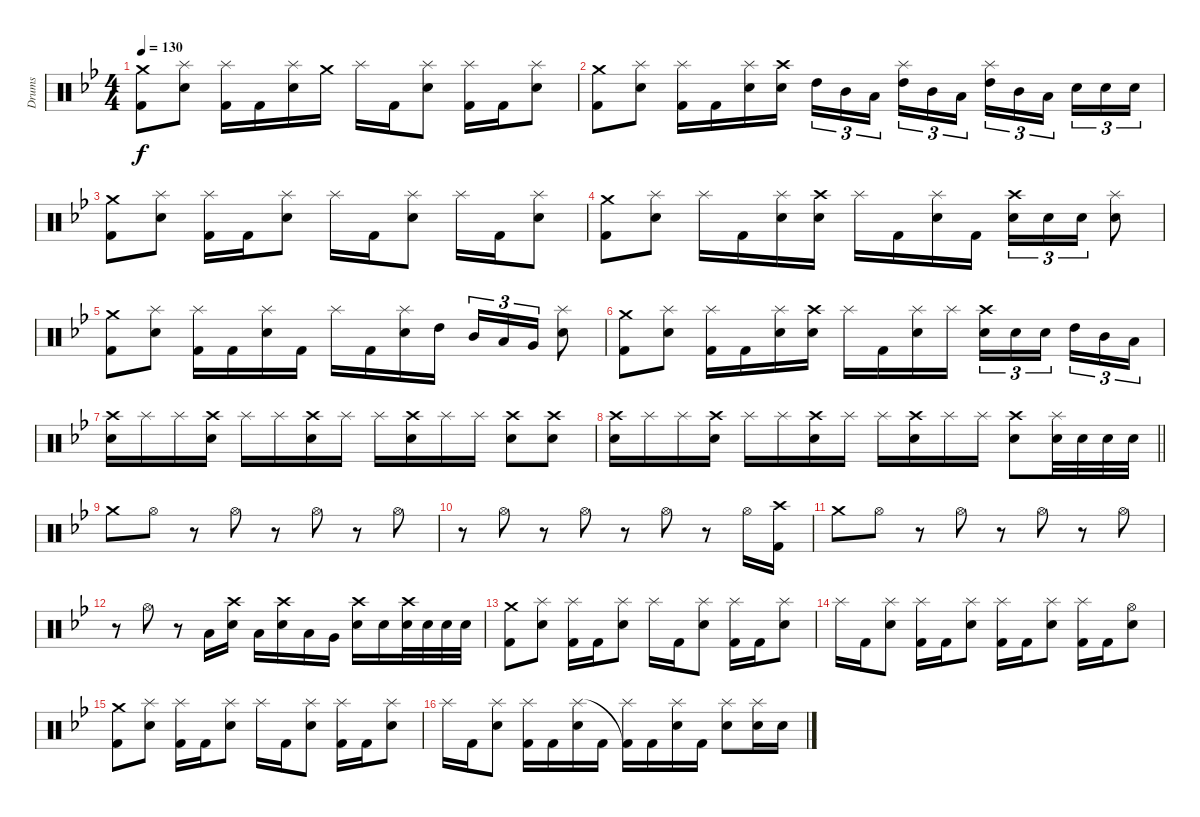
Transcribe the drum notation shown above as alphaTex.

\track ("Drums" "Drums") {instrument percussion}
\staff {score}
\articulation defaults
\ts (4 4)
\tempo 130
\clef neutral
\ks bb
("Crash medium (hit)" "Kick (hit) 2").8{dy f} ("Electric Snare (hit)" "Splash (hit)").8 ("Splash (hit)" "Kick (hit) 2").16 "Kick (hit) 2".16 ("Electric Snare (hit)" "Splash (hit)").16 "Crash medium (hit)".16 "Splash (hit)".16 "Kick (hit) 2".16 ("Electric Snare (hit)" "Splash (hit)").8 ("Splash (hit)" "Kick (hit) 2").16 "Kick (hit) 2".16 ("Electric Snare (hit)" "Splash (hit)").8 |
("Crash medium (hit)" "Kick (hit) 2").8 ("Electric Snare (hit)" "Splash (hit)").8 ("Splash (hit)" "Kick (hit) 2").16 "Kick (hit) 2".16 ("Electric Snare (hit)" "Splash (hit)").16 ("Electric Snare (hit)" "Crash high (hit)").16 "High Tom (hit)".16{tu (3 2)} "Mid Tom (hit)".16{tu (3 2)} "Low Tom (hit)".16{tu (3 2) beam splitsecondary} ("High Tom (hit)" "Splash (hit)").16{tu (3 2)} "Mid Tom (hit)".16{tu (3 2)} "Low Tom (hit)".16{tu (3 2)} ("High Tom (hit)" "Splash (hit)").16{tu (3 2)} "Mid Tom (hit)".16{tu (3 2)} "Low Tom (hit)".16{tu (3 2) beam splitsecondary} "Electric Snare (hit)".16{tu (3 2) volume 11} "Electric Snare (hit)".16{tu (3 2) volume 10} "Electric Snare (hit)".16{tu (3 2) volume 9} |
("Crash medium (hit)" "Kick (hit) 2").8{volume 12} ("Electric Snare (hit)" "Splash (hit)").8 ("Splash (hit)" "Kick (hit) 2").16 "Kick (hit) 2".16 ("Electric Snare (hit)" "Splash (hit)").8 "Splash (hit)".16 "Kick (hit) 2".16 ("Electric Snare (hit)" "Splash (hit)").8 "Splash (hit)".16 "Kick (hit) 2".16 ("Electric Snare (hit)" "Splash (hit)").8 |
("Crash medium (hit)" "Kick (hit) 2").8 ("Electric Snare (hit)" "Splash (hit)").8 "Splash (hit)".16 "Kick (hit) 2".16 ("Electric Snare (hit)" "Splash (hit)").16 ("Electric Snare (hit)" "Crash high (hit)").16 "Splash (hit)".16 "Kick (hit) 2".16 ("Electric Snare (hit)" "Splash (hit)").16 "Kick (hit) 2".16 ("Electric Snare (hit)" "Crash high (hit)").16{tu (3 2)} "Electric Snare (hit)".16{tu (3 2)} "Electric Snare (hit)".16{tu (3 2)} ("Electric Snare (hit)" "Splash (hit)").8 |
("Crash medium (hit)" "Kick (hit) 2").8 ("Electric Snare (hit)" "Splash (hit)").8 ("Splash (hit)" "Kick (hit) 2").16 "Kick (hit) 2".16 ("Electric Snare (hit)" "Splash (hit)").16 "Kick (hit) 2".16 "Splash (hit)".16 "Kick (hit) 2".16 ("Electric Snare (hit)" "Splash (hit)").16 "High Tom (hit)".16 "Mid Tom (hit)".16{tu (3 2)} "Low Tom (hit)".16{tu (3 2)} "Very Low Tom (hit)".16{tu (3 2)} ("Electric Snare (hit)" "Splash (hit)").8 |
("Crash medium (hit)" "Kick (hit) 2").8 ("Electric Snare (hit)" "Splash (hit)").8 ("Splash (hit)" "Kick (hit) 2").16 "Kick (hit) 2".16 ("Electric Snare (hit)" "Splash (hit)").16 ("Electric Snare (hit)" "Crash high (hit)").16 "Splash (hit)".16 "Kick (hit) 2".16 ("Electric Snare (hit)" "Splash (hit)").16 "Splash (hit)".16 ("Electric Snare (hit)" "Crash high (hit)").16{tu (3 2)} "Electric Snare (hit)".16{tu (3 2)} "Electric Snare (hit)".16{tu (3 2) beam splitsecondary} "High Tom (hit)".16{tu (3 2)} "Mid Tom (hit)".16{tu (3 2)} "Low Tom (hit)".16{tu (3 2)} |
("Crash high (hit)" "Electric Snare (hit)").16 "Splash (hit)".16 "Splash (hit)".16 ("Crash high (hit)" "Electric Snare (hit)").16 "Splash (hit)".16 "Splash (hit)".16 ("Crash high (hit)" "Electric Snare (hit)").16 "Splash (hit)".16 "Splash (hit)".16 ("Crash high (hit)" "Electric Snare (hit)").16 "Splash (hit)".16 "Splash (hit)".16 ("Crash high (hit)" "Electric Snare (hit)").8 ("Crash high (hit)" "Electric Snare (hit)").8 |
\barLineRight lightlight
("Crash high (hit)" "Electric Snare (hit)").16 "Splash (hit)".16 "Splash (hit)".16 ("Crash high (hit)" "Electric Snare (hit)").16 "Splash (hit)".16 "Splash (hit)".16 ("Crash high (hit)" "Electric Snare (hit)").16 "Splash (hit)".16 "Splash (hit)".16 ("Crash high (hit)" "Electric Snare (hit)").16 "Splash (hit)".16 "Splash (hit)".16 ("Crash high (hit)" "Electric Snare (hit)").8 ("Electric Snare (hit)" "Splash (hit)").32{volume 11} "Electric Snare (hit)".32 "Electric Snare (hit)".32{volume 10} "Electric Snare (hit)".32 |
"Crash medium (hit)".8{volume 12} "Hi-Hat (open)".8 r.8 "Hi-Hat (open)".8 r.8 "Hi-Hat (open)".8 r.8 "Hi-Hat (open)".8 |
r.8 "Hi-Hat (open)".8 r.8 "Hi-Hat (open)".8 r.8 "Hi-Hat (open)".8 r.8 "Hi-Hat (open)".16 ("Crash high (hit)" "Kick (hit) 2").16 |
"Crash medium (hit)".8 "Hi-Hat (open)".8 r.8 "Hi-Hat (open)".8 r.8 "Hi-Hat (open)".8 r.8 "Hi-Hat (open)".8 |
r.8 "Hi-Hat (open)".8 r.8 "Low Tom (hit)".16 ("Crash high (hit)" "Electric Snare (hit)").16 "Low Tom (hit)".16 ("Crash high (hit)" "Electric Snare (hit)").16 "Low Tom (hit)".16 "Very Low Tom (hit)".16 ("Electric Snare (hit)" "Crash high (hit)").16 "Electric Snare (hit)".16 ("Electric Snare (hit)" "Crash high (hit)").32{volume 11} "Electric Snare (hit)".32 "Electric Snare (hit)".32{volume 10} "Electric Snare (hit)".32 |
("Crash medium (hit)" "Kick (hit) 2").8{volume 12} ("Splash (hit)" "Electric Snare (hit)").8 ("Splash (hit)" "Kick (hit) 2").16 "Kick (hit) 2".16 ("Electric Snare (hit)" "Splash (hit)").8 "Splash (hit)".16 "Kick (hit) 2".16 ("Electric Snare (hit)" "Splash (hit)").8 ("Splash (hit)" "Kick (hit) 2").16 "Kick (hit) 2".16 ("Electric Snare (hit)" "Splash (hit)").8 |
"Splash (hit)".16 "Kick (hit) 2".16 ("Electric Snare (hit)" "Splash (hit)").8 ("Splash (hit)" "Kick (hit) 2").16 "Kick (hit) 2".16 ("Electric Snare (hit)" "Splash (hit)").8 ("Splash (hit)" "Kick (hit) 2").16 "Kick (hit) 2".16 ("Electric Snare (hit)" "Splash (hit)").8 ("Splash (hit)" "Kick (hit) 2").16 "Kick (hit) 2".16 ("Electric Snare (hit)" "Hi-Hat (open)").8 |
("Crash medium (hit)" "Kick (hit) 2").8 ("Splash (hit)" "Electric Snare (hit)").8 ("Splash (hit)" "Kick (hit) 2").16 "Kick (hit) 2".16 ("Electric Snare (hit)" "Splash (hit)").8 "Splash (hit)".16 "Kick (hit) 2".16 ("Electric Snare (hit)" "Splash (hit)").8 ("Splash (hit)" "Kick (hit) 2").16 "Kick (hit) 2".16 ("Electric Snare (hit)" "Splash (hit)").8 |
"Splash (hit)".16 "Kick (hit) 2".16 ("Electric Snare (hit)" "Splash (hit)").8 ("Splash (hit)" "Kick (hit) 2").16 "Kick (hit) 2".16 ("Electric Snare (hit)" "Splash (hit)").16 "Kick (hit) 2".16 ("Splash (hit)" "Kick (hit) 2"{t}).16 "Kick (hit) 2".16 ("Electric Snare (hit)" "Splash (hit)").16 "Kick (hit) 2".16 ("Electric Snare (hit)" "Splash (hit)").8 ("Electric Snare (hit)" "Splash (hit)").16 "Electric Snare (hit)".16
